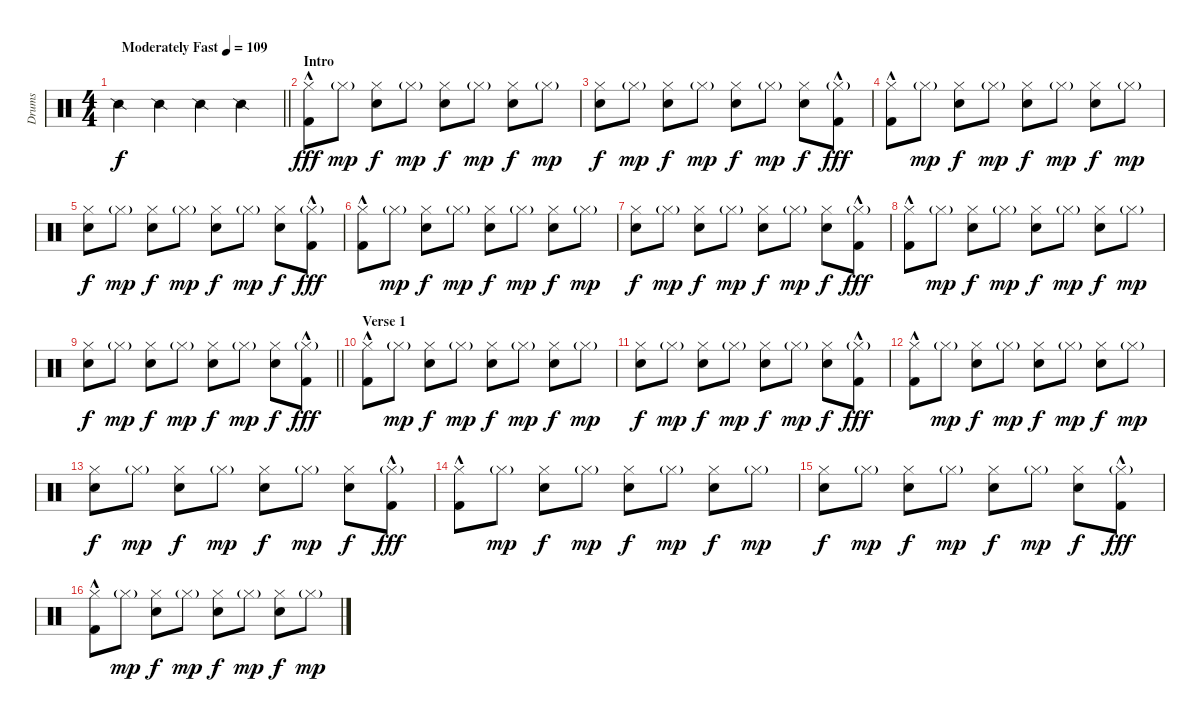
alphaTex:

\track ("Drums" "Drums") {instrument percussion}
\staff {score}
\articulation defaults
\ts (4 4)
\tempo (109 "Moderately Fast")
\clef neutral
\barLineRight lightlight
\ks c "Snare (side stick) 2".4{dy f} "Snare (side stick) 2".4 "Snare (side stick) 2".4 "Snare (side stick) 2".4
|
\section ("" "Intro")
("Hi-Hat (closed)" "Kick (hit) 2"{hac}).8{dy fff} "Hi-Hat (closed)"{g}.8{dy mp} ("Hi-Hat (closed)" "Electric Snare (hit)").8{dy f} "Hi-Hat (closed)"{g}.8{dy mp} ("Hi-Hat (closed)" "Electric Snare (hit)").8{dy f} "Hi-Hat (closed)"{g}.8{dy mp} ("Hi-Hat (closed)" "Electric Snare (hit)").8{dy f} "Hi-Hat (closed)"{g}.8{dy mp} |
("Hi-Hat (closed)" "Electric Snare (hit)").8{dy f} "Hi-Hat (closed)"{g}.8{dy mp} ("Hi-Hat (closed)" "Electric Snare (hit)").8{dy f} "Hi-Hat (closed)"{g}.8{dy mp} ("Hi-Hat (closed)" "Electric Snare (hit)").8{dy f} "Hi-Hat (closed)"{g}.8{dy mp} ("Hi-Hat (closed)" "Electric Snare (hit)").8{dy f} ("Hi-Hat (closed)"{g} "Kick (hit) 2"{hac}).8{dy fff} |
("Hi-Hat (closed)" "Kick (hit) 2"{hac}).8 "Hi-Hat (closed)"{g}.8{dy mp} ("Hi-Hat (closed)" "Electric Snare (hit)").8{dy f} "Hi-Hat (closed)"{g}.8{dy mp} ("Hi-Hat (closed)" "Electric Snare (hit)").8{dy f} "Hi-Hat (closed)"{g}.8{dy mp} ("Hi-Hat (closed)" "Electric Snare (hit)").8{dy f} "Hi-Hat (closed)"{g}.8{dy mp} |
("Hi-Hat (closed)" "Electric Snare (hit)").8{dy f} "Hi-Hat (closed)"{g}.8{dy mp} ("Hi-Hat (closed)" "Electric Snare (hit)").8{dy f} "Hi-Hat (closed)"{g}.8{dy mp} ("Hi-Hat (closed)" "Electric Snare (hit)").8{dy f} "Hi-Hat (closed)"{g}.8{dy mp} ("Hi-Hat (closed)" "Electric Snare (hit)").8{dy f} ("Hi-Hat (closed)"{g} "Kick (hit) 2"{hac}).8{dy fff} |
("Hi-Hat (closed)" "Kick (hit) 2"{hac}).8 "Hi-Hat (closed)"{g}.8{dy mp} ("Hi-Hat (closed)" "Electric Snare (hit)").8{dy f} "Hi-Hat (closed)"{g}.8{dy mp} ("Hi-Hat (closed)" "Electric Snare (hit)").8{dy f} "Hi-Hat (closed)"{g}.8{dy mp} ("Hi-Hat (closed)" "Electric Snare (hit)").8{dy f} "Hi-Hat (closed)"{g}.8{dy mp} |
("Hi-Hat (closed)" "Electric Snare (hit)").8{dy f} "Hi-Hat (closed)"{g}.8{dy mp} ("Hi-Hat (closed)" "Electric Snare (hit)").8{dy f} "Hi-Hat (closed)"{g}.8{dy mp} ("Hi-Hat (closed)" "Electric Snare (hit)").8{dy f} "Hi-Hat (closed)"{g}.8{dy mp} ("Hi-Hat (closed)" "Electric Snare (hit)").8{dy f} ("Hi-Hat (closed)"{g} "Kick (hit) 2"{hac}).8{dy fff} |
("Hi-Hat (closed)" "Kick (hit) 2"{hac}).8 "Hi-Hat (closed)"{g}.8{dy mp} ("Hi-Hat (closed)" "Electric Snare (hit)").8{dy f} "Hi-Hat (closed)"{g}.8{dy mp} ("Hi-Hat (closed)" "Electric Snare (hit)").8{dy f} "Hi-Hat (closed)"{g}.8{dy mp} ("Hi-Hat (closed)" "Electric Snare (hit)").8{dy f} "Hi-Hat (closed)"{g}.8{dy mp} |
\barLineRight lightlight
("Hi-Hat (closed)" "Electric Snare (hit)").8{dy f} "Hi-Hat (closed)"{g}.8{dy mp} ("Hi-Hat (closed)" "Electric Snare (hit)").8{dy f} "Hi-Hat (closed)"{g}.8{dy mp} ("Hi-Hat (closed)" "Electric Snare (hit)").8{dy f} "Hi-Hat (closed)"{g}.8{dy mp} ("Hi-Hat (closed)" "Electric Snare (hit)").8{dy f} ("Hi-Hat (closed)"{g} "Kick (hit) 2"{hac}).8{dy fff} |
\section ("" "Verse 1")
("Hi-Hat (closed)" "Kick (hit) 2"{hac}).8 "Hi-Hat (closed)"{g}.8{dy mp} ("Hi-Hat (closed)" "Electric Snare (hit)").8{dy f} "Hi-Hat (closed)"{g}.8{dy mp} ("Hi-Hat (closed)" "Electric Snare (hit)").8{dy f} "Hi-Hat (closed)"{g}.8{dy mp} ("Hi-Hat (closed)" "Electric Snare (hit)").8{dy f} "Hi-Hat (closed)"{g}.8{dy mp} |
("Hi-Hat (closed)" "Electric Snare (hit)").8{dy f} "Hi-Hat (closed)"{g}.8{dy mp} ("Hi-Hat (closed)" "Electric Snare (hit)").8{dy f} "Hi-Hat (closed)"{g}.8{dy mp} ("Hi-Hat (closed)" "Electric Snare (hit)").8{dy f} "Hi-Hat (closed)"{g}.8{dy mp} ("Hi-Hat (closed)" "Electric Snare (hit)").8{dy f} ("Hi-Hat (closed)"{g} "Kick (hit) 2"{hac}).8{dy fff} |
("Hi-Hat (closed)" "Kick (hit) 2"{hac}).8 "Hi-Hat (closed)"{g}.8{dy mp} ("Hi-Hat (closed)" "Electric Snare (hit)").8{dy f} "Hi-Hat (closed)"{g}.8{dy mp} ("Hi-Hat (closed)" "Electric Snare (hit)").8{dy f} "Hi-Hat (closed)"{g}.8{dy mp} ("Hi-Hat (closed)" "Electric Snare (hit)").8{dy f} "Hi-Hat (closed)"{g}.8{dy mp} |
("Hi-Hat (closed)" "Electric Snare (hit)").8{dy f} "Hi-Hat (closed)"{g}.8{dy mp} ("Hi-Hat (closed)" "Electric Snare (hit)").8{dy f} "Hi-Hat (closed)"{g}.8{dy mp} ("Hi-Hat (closed)" "Electric Snare (hit)").8{dy f} "Hi-Hat (closed)"{g}.8{dy mp} ("Hi-Hat (closed)" "Electric Snare (hit)").8{dy f} ("Hi-Hat (closed)"{g} "Kick (hit) 2"{hac}).8{dy fff} |
("Hi-Hat (closed)" "Kick (hit) 2"{hac}).8 "Hi-Hat (closed)"{g}.8{dy mp} ("Hi-Hat (closed)" "Electric Snare (hit)").8{dy f} "Hi-Hat (closed)"{g}.8{dy mp} ("Hi-Hat (closed)" "Electric Snare (hit)").8{dy f} "Hi-Hat (closed)"{g}.8{dy mp} ("Hi-Hat (closed)" "Electric Snare (hit)").8{dy f} "Hi-Hat (closed)"{g}.8{dy mp} |
("Hi-Hat (closed)" "Electric Snare (hit)").8{dy f} "Hi-Hat (closed)"{g}.8{dy mp} ("Hi-Hat (closed)" "Electric Snare (hit)").8{dy f} "Hi-Hat (closed)"{g}.8{dy mp} ("Hi-Hat (closed)" "Electric Snare (hit)").8{dy f} "Hi-Hat (closed)"{g}.8{dy mp} ("Hi-Hat (closed)" "Electric Snare (hit)").8{dy f} ("Hi-Hat (closed)"{g} "Kick (hit) 2"{hac}).8{dy fff} |
("Hi-Hat (closed)" "Kick (hit) 2"{hac}).8 "Hi-Hat (closed)"{g}.8{dy mp} ("Hi-Hat (closed)" "Electric Snare (hit)").8{dy f} "Hi-Hat (closed)"{g}.8{dy mp} ("Hi-Hat (closed)" "Electric Snare (hit)").8{dy f} "Hi-Hat (closed)"{g}.8{dy mp} ("Hi-Hat (closed)" "Electric Snare (hit)").8{dy f} "Hi-Hat (closed)"{g}.8{dy mp}
